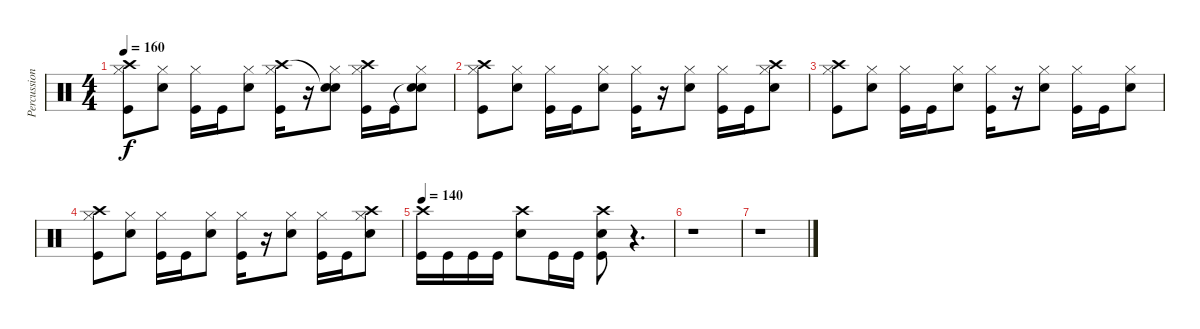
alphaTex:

\track ("Percussion" "Percussion") {instrument percussion}
\staff {score}
\articulation defaults
\ts (4 4)
\tempo 160
\clef neutral
\ks c
("Crash high (hit)" "Hi-Hat (closed)" "Kick (hit)").8{dy f} ("Hi-Hat (closed)" "Electric Snare (hit)").8 ("Hi-Hat (closed)" "Kick (hit)").16 "Kick (hit)".16 ("Hi-Hat (closed)" "Electric Snare (hit)").8 ("Crash high (hit)" "Hi-Hat (closed)" "Kick (hit)").16 r.16 ("Snare (hit)"{t} "Hi-Hat (closed)" "Electric Snare (hit)").8 ("Crash high (hit)" "Hi-Hat (closed)" "Kick (hit)").16 "Kick (hit)".16 ("Snare (hit)"{t} "Hi-Hat (closed)" "Electric Snare (hit)").8 |
("Crash high (hit)" "Hi-Hat (closed)" "Kick (hit)").8 ("Hi-Hat (closed)" "Electric Snare (hit)").8 ("Hi-Hat (closed)" "Kick (hit)").16 "Kick (hit)".16 ("Hi-Hat (closed)" "Electric Snare (hit)").8 ("Hi-Hat (closed)" "Kick (hit)").16 r.16 ("Hi-Hat (closed)" "Electric Snare (hit)").8 ("Hi-Hat (closed)" "Kick (hit)").16 "Kick (hit)".16 ("Crash high (hit)" "Hi-Hat (closed)" "Electric Snare (hit)").8 |
("Crash high (hit)" "Hi-Hat (closed)" "Kick (hit)").8 ("Hi-Hat (closed)" "Electric Snare (hit)").8 ("Hi-Hat (closed)" "Kick (hit)").16 "Kick (hit)".16 ("Hi-Hat (closed)" "Electric Snare (hit)").8 ("Hi-Hat (closed)" "Kick (hit)").16 r.16 ("Hi-Hat (closed)" "Electric Snare (hit)").8 ("Hi-Hat (closed)" "Kick (hit)").16 "Kick (hit)".16 ("Hi-Hat (closed)" "Electric Snare (hit)").8 |
("Crash high (hit)" "Hi-Hat (closed)" "Kick (hit)").8 ("Hi-Hat (closed)" "Electric Snare (hit)").8 ("Hi-Hat (closed)" "Kick (hit)").16 "Kick (hit)".16 ("Hi-Hat (closed)" "Electric Snare (hit)").8 ("Hi-Hat (closed)" "Kick (hit)").16 r.16 ("Hi-Hat (closed)" "Electric Snare (hit)").8 ("Hi-Hat (closed)" "Kick (hit)").16 "Kick (hit)".16 ("Crash high (hit)" "Hi-Hat (closed)" "Electric Snare (hit)").8 |
\tempo 140
("Crash high (hit)" "Kick (hit)").16 "Kick (hit)".16 "Kick (hit)".16 "Kick (hit)".16 ("Crash high (hit)" "Electric Snare (hit)").8 "Kick (hit)".16 "Kick (hit)".16 ("Crash high (hit)" "Electric Snare (hit)" "Kick (hit)").8 r.4{d volume 0} |
r.1 |
r.1
